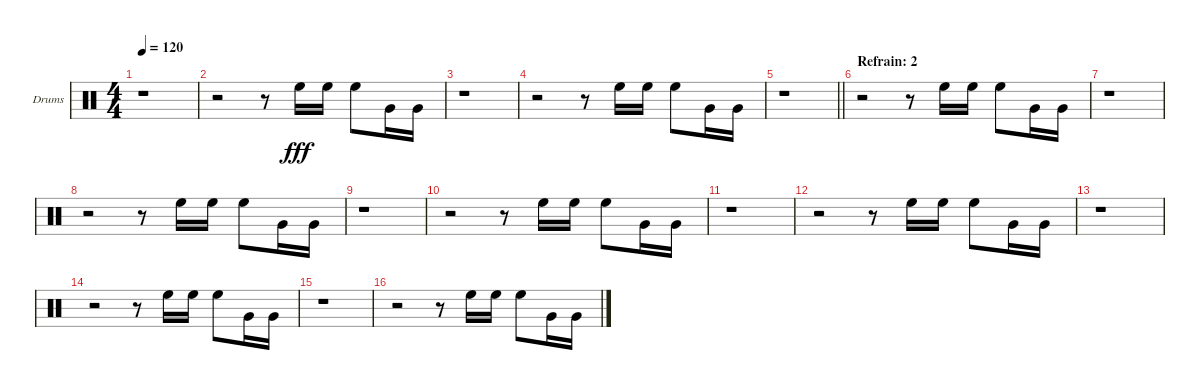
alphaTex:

\bracketExtendMode groupsimilarinstruments
\firstSystemTrackNameOrientation horizontal
\otherSystemsTrackNameOrientation horizontal
\track ("Drumkit" "Drums") {instrument percussion}
\staff {score}
\articulation defaults
\ts (4 4)
\tempo 120
\clef neutral
\ks c
r.1{dy fff} |
r.2 r.8 "High Floor Tom (hit)".16 "High Floor Tom (hit)".16 "High Floor Tom (hit)".8 "Very Low Tom (hit)".16 "Very Low Tom (hit)".16 |
r.1 |
r.2 r.8 "High Floor Tom (hit)".16 "High Floor Tom (hit)".16 "High Floor Tom (hit)".8 "Very Low Tom (hit)".16 "Very Low Tom (hit)".16 |
\barLineRight lightlight
r.1 |
\section ("" "Refrain: 2")
r.2 r.8 "High Floor Tom (hit)".16 "High Floor Tom (hit)".16 "High Floor Tom (hit)".8 "Very Low Tom (hit)".16 "Very Low Tom (hit)".16 |
r.1 |
r.2 r.8 "High Floor Tom (hit)".16 "High Floor Tom (hit)".16 "High Floor Tom (hit)".8 "Very Low Tom (hit)".16 "Very Low Tom (hit)".16 |
r.1 |
r.2 r.8 "High Floor Tom (hit)".16 "High Floor Tom (hit)".16 "High Floor Tom (hit)".8 "Very Low Tom (hit)".16 "Very Low Tom (hit)".16 |
r.1 |
r.2 r.8 "High Floor Tom (hit)".16 "High Floor Tom (hit)".16 "High Floor Tom (hit)".8 "Very Low Tom (hit)".16 "Very Low Tom (hit)".16 |
r.1 |
r.2 r.8 "High Floor Tom (hit)".16 "High Floor Tom (hit)".16 "High Floor Tom (hit)".8 "Very Low Tom (hit)".16 "Very Low Tom (hit)".16 |
r.1 |
r.2 r.8 "High Floor Tom (hit)".16 "High Floor Tom (hit)".16 "High Floor Tom (hit)".8 "Very Low Tom (hit)".16 "Very Low Tom (hit)".16
